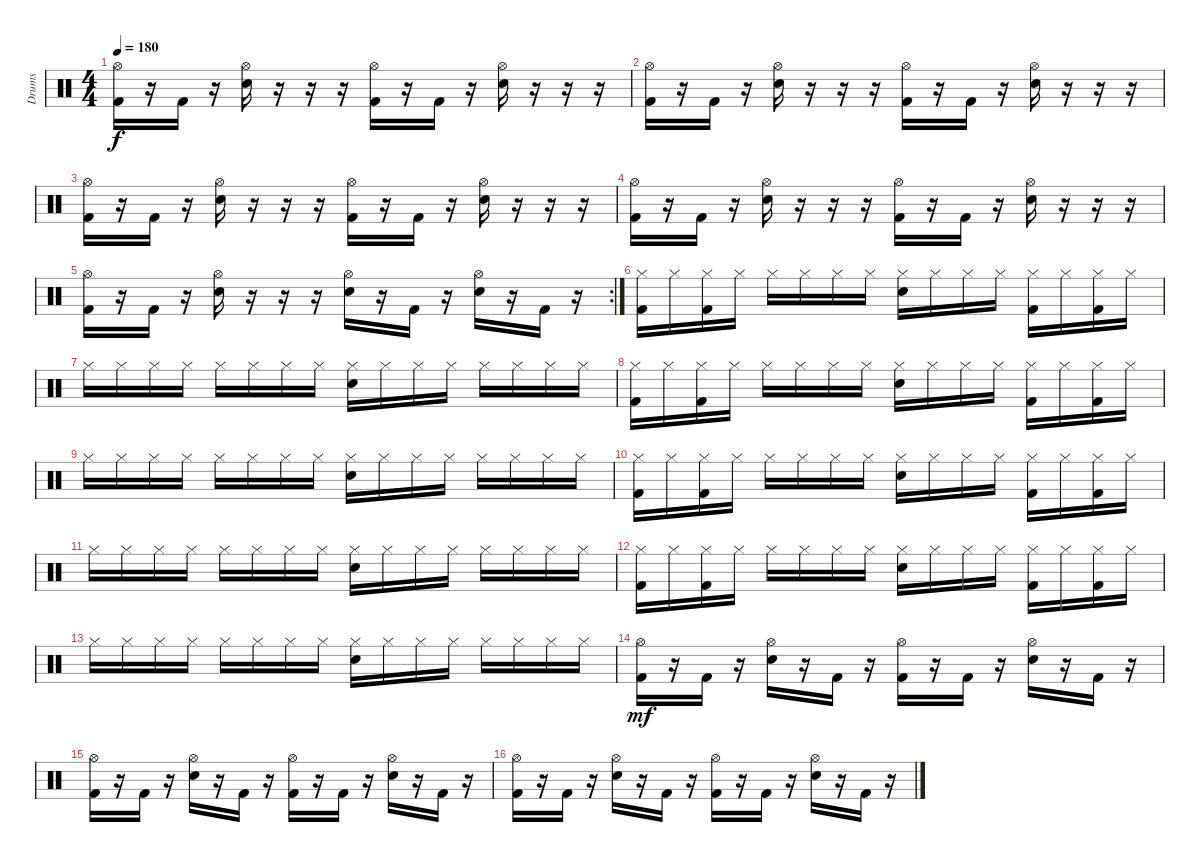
\track ("Drums" "Drums") {instrument percussion}
\staff {score}
\articulation defaults
\ts (4 4)
\tempo 180
\clef neutral
\ks c
("Hi-Hat (open)" "Kick (hit) 2").16{dy f} r.16 "Kick (hit) 2".16 r.16 ("Hi-Hat (open)" "Snare (hit) 2").16 r.16 r.16 r.16 ("Hi-Hat (open)" "Kick (hit) 2").16 r.16 "Kick (hit) 2".16 r.16 ("Hi-Hat (open)" "Snare (hit) 2").16 r.16 r.16 r.16 |
("Hi-Hat (open)" "Kick (hit) 2").16 r.16 "Kick (hit) 2".16 r.16 ("Hi-Hat (open)" "Snare (hit) 2").16 r.16 r.16 r.16 ("Hi-Hat (open)" "Kick (hit) 2").16 r.16 "Kick (hit) 2".16 r.16 ("Hi-Hat (open)" "Snare (hit) 2").16 r.16 r.16 r.16 |
("Hi-Hat (open)" "Kick (hit) 2").16 r.16 "Kick (hit) 2".16 r.16 ("Hi-Hat (open)" "Snare (hit) 2").16 r.16 r.16 r.16 ("Hi-Hat (open)" "Kick (hit) 2").16 r.16 "Kick (hit) 2".16 r.16 ("Hi-Hat (open)" "Snare (hit) 2").16 r.16 r.16 r.16 |
("Hi-Hat (open)" "Kick (hit) 2").16 r.16 "Kick (hit) 2".16 r.16 ("Hi-Hat (open)" "Snare (hit) 2").16 r.16 r.16 r.16 ("Hi-Hat (open)" "Kick (hit) 2").16 r.16 "Kick (hit) 2".16 r.16 ("Hi-Hat (open)" "Snare (hit) 2").16 r.16 r.16 r.16 |
\rc 2
("Hi-Hat (open)" "Kick (hit) 2").16 r.16 "Kick (hit) 2".16 r.16 ("Hi-Hat (open)" "Snare (hit) 2").16 r.16 r.16 r.16 ("Hi-Hat (open)" "Snare (hit) 2").16 r.16 "Kick (hit) 2".16 r.16 ("Hi-Hat (open)" "Snare (hit) 2").16 r.16 "Kick (hit) 2".16 r.16 |
("Hi-Hat (closed)" "Kick (hit) 2").16 "Hi-Hat (closed)".16 ("Hi-Hat (closed)" "Kick (hit) 2").16 "Hi-Hat (closed)".16 "Hi-Hat (closed)".16 "Hi-Hat (closed)".16 "Hi-Hat (closed)".16 "Hi-Hat (closed)".16 ("Hi-Hat (closed)" "Snare (hit) 2").16 "Hi-Hat (closed)".16 "Hi-Hat (closed)".16 "Hi-Hat (closed)".16 ("Hi-Hat (closed)" "Kick (hit) 2").16 "Hi-Hat (closed)".16 ("Hi-Hat (closed)" "Kick (hit) 2").16 "Hi-Hat (closed)".16 |
"Hi-Hat (closed)".16 "Hi-Hat (closed)".16 "Hi-Hat (closed)".16 "Hi-Hat (closed)".16 "Hi-Hat (closed)".16 "Hi-Hat (closed)".16 "Hi-Hat (closed)".16 "Hi-Hat (closed)".16 ("Hi-Hat (closed)" "Snare (hit) 2").16 "Hi-Hat (closed)".16 "Hi-Hat (closed)".16 "Hi-Hat (closed)".16 "Hi-Hat (closed)".16 "Hi-Hat (closed)".16 "Hi-Hat (closed)".16 "Hi-Hat (closed)".16 |
("Hi-Hat (closed)" "Kick (hit) 2").16 "Hi-Hat (closed)".16 ("Hi-Hat (closed)" "Kick (hit) 2").16 "Hi-Hat (closed)".16 "Hi-Hat (closed)".16 "Hi-Hat (closed)".16 "Hi-Hat (closed)".16 "Hi-Hat (closed)".16 ("Hi-Hat (closed)" "Snare (hit) 2").16 "Hi-Hat (closed)".16 "Hi-Hat (closed)".16 "Hi-Hat (closed)".16 ("Hi-Hat (closed)" "Kick (hit) 2").16 "Hi-Hat (closed)".16 ("Hi-Hat (closed)" "Kick (hit) 2").16 "Hi-Hat (closed)".16 |
"Hi-Hat (closed)".16 "Hi-Hat (closed)".16 "Hi-Hat (closed)".16 "Hi-Hat (closed)".16 "Hi-Hat (closed)".16 "Hi-Hat (closed)".16 "Hi-Hat (closed)".16 "Hi-Hat (closed)".16 ("Hi-Hat (closed)" "Snare (hit) 2").16 "Hi-Hat (closed)".16 "Hi-Hat (closed)".16 "Hi-Hat (closed)".16 "Hi-Hat (closed)".16 "Hi-Hat (closed)".16 "Hi-Hat (closed)".16 "Hi-Hat (closed)".16 |
("Hi-Hat (closed)" "Kick (hit) 2").16 "Hi-Hat (closed)".16 ("Hi-Hat (closed)" "Kick (hit) 2").16 "Hi-Hat (closed)".16 "Hi-Hat (closed)".16 "Hi-Hat (closed)".16 "Hi-Hat (closed)".16 "Hi-Hat (closed)".16 ("Hi-Hat (closed)" "Snare (hit) 2").16 "Hi-Hat (closed)".16 "Hi-Hat (closed)".16 "Hi-Hat (closed)".16 ("Hi-Hat (closed)" "Kick (hit) 2").16 "Hi-Hat (closed)".16 ("Hi-Hat (closed)" "Kick (hit) 2").16 "Hi-Hat (closed)".16 |
"Hi-Hat (closed)".16 "Hi-Hat (closed)".16 "Hi-Hat (closed)".16 "Hi-Hat (closed)".16 "Hi-Hat (closed)".16 "Hi-Hat (closed)".16 "Hi-Hat (closed)".16 "Hi-Hat (closed)".16 ("Hi-Hat (closed)" "Snare (hit) 2").16 "Hi-Hat (closed)".16 "Hi-Hat (closed)".16 "Hi-Hat (closed)".16 "Hi-Hat (closed)".16 "Hi-Hat (closed)".16 "Hi-Hat (closed)".16 "Hi-Hat (closed)".16 |
("Hi-Hat (closed)" "Kick (hit) 2").16 "Hi-Hat (closed)".16 ("Hi-Hat (closed)" "Kick (hit) 2").16 "Hi-Hat (closed)".16 "Hi-Hat (closed)".16 "Hi-Hat (closed)".16 "Hi-Hat (closed)".16 "Hi-Hat (closed)".16 ("Hi-Hat (closed)" "Snare (hit) 2").16 "Hi-Hat (closed)".16 "Hi-Hat (closed)".16 "Hi-Hat (closed)".16 ("Hi-Hat (closed)" "Kick (hit) 2").16 "Hi-Hat (closed)".16 ("Hi-Hat (closed)" "Kick (hit) 2").16 "Hi-Hat (closed)".16 |
"Hi-Hat (closed)".16 "Hi-Hat (closed)".16 "Hi-Hat (closed)".16 "Hi-Hat (closed)".16 "Hi-Hat (closed)".16 "Hi-Hat (closed)".16 "Hi-Hat (closed)".16 "Hi-Hat (closed)".16 ("Hi-Hat (closed)" "Snare (hit) 2").16 "Hi-Hat (closed)".16 "Hi-Hat (closed)".16 "Hi-Hat (closed)".16 "Hi-Hat (closed)".16 "Hi-Hat (closed)".16 "Hi-Hat (closed)".16 "Hi-Hat (closed)".16 |
("Hi-Hat (open)" "Kick (hit) 2").16{dy mf} r.16 "Kick (hit) 2".16 r.16 ("Hi-Hat (open)" "Snare (hit) 2").16 r.16 "Kick (hit) 2".16 r.16 ("Hi-Hat (open)" "Kick (hit) 2").16 r.16 "Kick (hit) 2".16 r.16 ("Hi-Hat (open)" "Snare (hit) 2").16 r.16 "Kick (hit) 2".16 r.16 |
("Hi-Hat (open)" "Kick (hit) 2").16 r.16 "Kick (hit) 2".16 r.16 ("Hi-Hat (open)" "Snare (hit) 2").16 r.16 "Kick (hit) 2".16 r.16 ("Hi-Hat (open)" "Kick (hit) 2").16 r.16 "Kick (hit) 2".16 r.16 ("Hi-Hat (open)" "Snare (hit) 2").16 r.16 "Kick (hit) 2".16 r.16 |
("Hi-Hat (open)" "Kick (hit) 2").16 r.16 "Kick (hit) 2".16 r.16 ("Hi-Hat (open)" "Snare (hit) 2").16 r.16 "Kick (hit) 2".16 r.16 ("Hi-Hat (open)" "Kick (hit) 2").16 r.16 "Kick (hit) 2".16 r.16 ("Hi-Hat (open)" "Snare (hit) 2").16 r.16 "Kick (hit) 2".16 r.16
